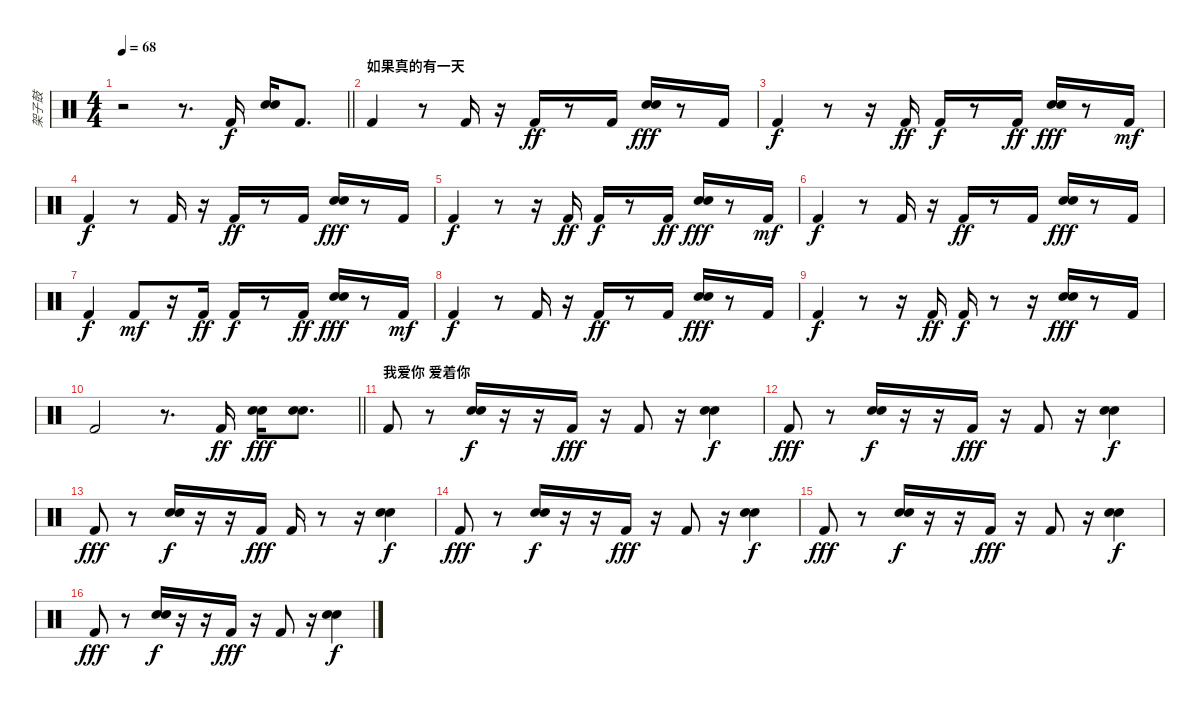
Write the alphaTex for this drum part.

\track ("架子鼓" "架子鼓") {instrument percussion}
\staff {score}
\articulation defaults
\ts (4 4)
\section ("" "")
\tempo 68
\clef neutral
\barLineRight lightlight
\ks c
r.2{dy mp} r.8{d} "Kick (hit) 2".16{dy f} ("Snare (hit) 2" "Hand Clap (hit)").16 "Kick (hit) 2".8{d} |
\section ("" "如果真的有一天")
"Kick (hit) 2".4 r.8 "Kick (hit) 2".16 r.16 "Kick (hit) 2".16{dy ff} r.8 "Kick (hit) 2".16 ("Snare (hit) 2" "Hand Clap (hit)").16{dy fff} r.8 "Kick (hit) 2".16 |
"Kick (hit) 2".4{dy f} r.8 r.16 "Kick (hit) 2".16{dy ff} "Kick (hit) 2".16{dy f} r.8 "Kick (hit) 2".16{dy ff} ("Snare (hit) 2" "Hand Clap (hit)").16{dy fff} r.8 "Kick (hit) 2".16{dy mf} |
"Kick (hit) 2".4{dy f} r.8 "Kick (hit) 2".16 r.16 "Kick (hit) 2".16{dy ff} r.8 "Kick (hit) 2".16 ("Snare (hit) 2" "Hand Clap (hit)").16{dy fff} r.8 "Kick (hit) 2".16 |
"Kick (hit) 2".4{dy f} r.8 r.16 "Kick (hit) 2".16{dy ff} "Kick (hit) 2".16{dy f} r.8 "Kick (hit) 2".16{dy ff} ("Snare (hit) 2" "Hand Clap (hit)").16{dy fff} r.8 "Kick (hit) 2".16{dy mf} |
"Kick (hit) 2".4{dy f} r.8 "Kick (hit) 2".16 r.16 "Kick (hit) 2".16{dy ff} r.8 "Kick (hit) 2".16 ("Snare (hit) 2" "Hand Clap (hit)").16{dy fff} r.8 "Kick (hit) 2".16 |
"Kick (hit) 2".4{dy f} "Kick (hit) 2".8{dy mf} r.16 "Kick (hit) 2".16{dy ff} "Kick (hit) 2".16{dy f} r.8 "Kick (hit) 2".16{dy ff} ("Snare (hit) 2" "Hand Clap (hit)").16{dy fff} r.8 "Kick (hit) 2".16{dy mf} |
"Kick (hit) 2".4{dy f} r.8 "Kick (hit) 2".16 r.16 "Kick (hit) 2".16{dy ff} r.8 "Kick (hit) 2".16 ("Snare (hit) 2" "Hand Clap (hit)").16{dy fff} r.8 "Kick (hit) 2".16 |
"Kick (hit) 2".4{dy f} r.8 r.16 "Kick (hit) 2".16{dy ff} "Kick (hit) 2".16{dy f} r.8 r.16 ("Snare (hit) 2" "Hand Clap (hit)").16{dy fff} r.8 "Kick (hit) 2".16 |
\barLineRight lightlight "Kick (hit) 2".2
r.8{d} "Kick (hit) 2".16{dy ff} ("Snare (hit) 2" "Hand Clap (hit)").16{dy fff} ("Snare (hit) 2" "Hand Clap (hit)").8{d} |
\section ("" "我爱你 爱着你")
"Kick (hit) 2".8 r.8 ("Snare (hit) 2" "Hand Clap (hit)").16{dy f} r.16 r.16 "Kick (hit) 2".16{dy fff} r.16 "Kick (hit) 2".8 r.16 ("Snare (hit) 2" "Hand Clap (hit)").4{dy f} |
"Kick (hit) 2".8{dy fff} r.8 ("Snare (hit) 2" "Hand Clap (hit)").16{dy f} r.16 r.16 "Kick (hit) 2".16{dy fff} r.16 "Kick (hit) 2".8 r.16 ("Snare (hit) 2" "Hand Clap (hit)").4{dy f} |
"Kick (hit) 2".8{dy fff} r.8 ("Snare (hit) 2" "Hand Clap (hit)").16{dy f} r.16 r.16 "Kick (hit) 2".16{dy fff} "Kick (hit) 2".16 r.8 r.16 ("Snare (hit) 2" "Hand Clap (hit)").4{dy f} |
"Kick (hit) 2".8{dy fff} r.8 ("Snare (hit) 2" "Hand Clap (hit)").16{dy f} r.16 r.16 "Kick (hit) 2".16{dy fff} r.16 "Kick (hit) 2".8 r.16 ("Snare (hit) 2" "Hand Clap (hit)").4{dy f} |
"Kick (hit) 2".8{dy fff} r.8 ("Snare (hit) 2" "Hand Clap (hit)").16{dy f} r.16 r.16 "Kick (hit) 2".16{dy fff} r.16 "Kick (hit) 2".8 r.16 ("Snare (hit) 2" "Hand Clap (hit)").4{dy f} |
"Kick (hit) 2".8{dy fff} r.8 ("Snare (hit) 2" "Hand Clap (hit)").16{dy f} r.16 r.16 "Kick (hit) 2".16{dy fff} r.16 "Kick (hit) 2".8 r.16 ("Snare (hit) 2" "Hand Clap (hit)").4{dy f}
